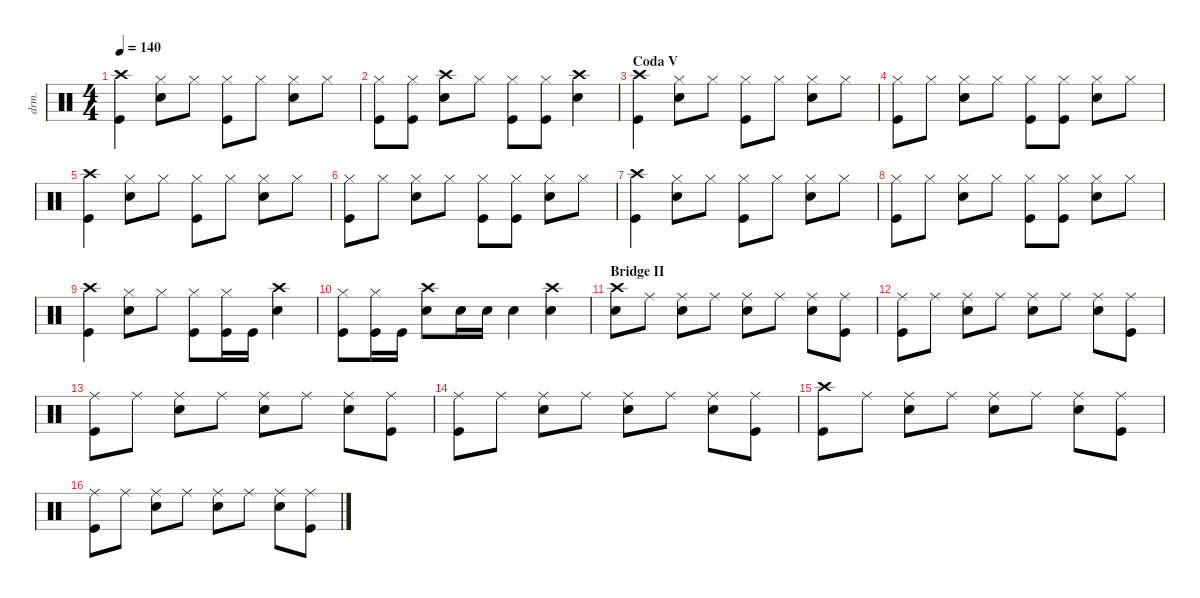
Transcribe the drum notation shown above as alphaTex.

\defaultSystemsLayout 4
\hideDynamics
\bracketExtendMode nobrackets
\otherSystemsTrackNameOrientation horizontal
\track ("Drums" "drm.") {multiBarRest instrument percussion}
\staff
\articulation defaults
\ts (4 4)
\tempo 140
\clef neutral
\ks c
("Crash high (hit)" "Kick (hit)").4{dy f} ("Hi-Hat (closed)" "Snare (hit) 2").8 "Hi-Hat (closed)".8 ("Hi-Hat (closed)" "Kick (hit)").8 "Hi-Hat (closed)".8 ("Hi-Hat (closed)" "Snare (hit) 2").8 "Hi-Hat (closed)".8 |
("Hi-Hat (closed)" "Kick (hit)").8 ("Hi-Hat (closed)" "Kick (hit)").8 ("Snare (hit) 2" "Crash high (hit)").8 "Hi-Hat (closed)".8 ("Hi-Hat (closed)" "Kick (hit)").8 ("Hi-Hat (closed)" "Kick (hit)").8 ("Snare (hit) 2" "Crash high (hit)").4 |
\section ("" "Coda V")
("Crash high (hit)" "Kick (hit)").4 ("Hi-Hat (closed)" "Snare (hit) 2").8 "Hi-Hat (closed)".8 ("Hi-Hat (closed)" "Kick (hit)").8 "Hi-Hat (closed)".8 ("Hi-Hat (closed)" "Snare (hit) 2").8 "Hi-Hat (closed)".8 |
("Kick (hit)" "Hi-Hat (closed)").8 "Hi-Hat (closed)".8 ("Hi-Hat (closed)" "Snare (hit) 2").8 "Hi-Hat (closed)".8 ("Kick (hit)" "Hi-Hat (closed)").8 ("Hi-Hat (closed)" "Kick (hit)").8 ("Hi-Hat (closed)" "Snare (hit) 2").8 "Hi-Hat (closed)".8 |
("Crash high (hit)" "Kick (hit)").4 ("Hi-Hat (closed)" "Snare (hit) 2").8 "Hi-Hat (closed)".8 ("Hi-Hat (closed)" "Kick (hit)").8 "Hi-Hat (closed)".8 ("Hi-Hat (closed)" "Snare (hit) 2").8 "Hi-Hat (closed)".8 |
("Kick (hit)" "Hi-Hat (closed)").8 "Hi-Hat (closed)".8 ("Hi-Hat (closed)" "Snare (hit) 2").8 "Hi-Hat (closed)".8 ("Kick (hit)" "Hi-Hat (closed)").8 ("Hi-Hat (closed)" "Kick (hit)").8 ("Hi-Hat (closed)" "Snare (hit) 2").8 "Hi-Hat (closed)".8 |
("Crash high (hit)" "Kick (hit)").4 ("Hi-Hat (closed)" "Snare (hit) 2").8 "Hi-Hat (closed)".8 ("Hi-Hat (closed)" "Kick (hit)").8 "Hi-Hat (closed)".8 ("Hi-Hat (closed)" "Snare (hit) 2").8 "Hi-Hat (closed)".8 |
("Kick (hit)" "Hi-Hat (closed)").8 "Hi-Hat (closed)".8 ("Hi-Hat (closed)" "Snare (hit) 2").8 "Hi-Hat (closed)".8 ("Kick (hit)" "Hi-Hat (closed)").8 ("Hi-Hat (closed)" "Kick (hit)").8 ("Hi-Hat (closed)" "Snare (hit) 2").8 "Hi-Hat (closed)".8 |
("Kick (hit)" "Crash high (hit)").4 ("Hi-Hat (closed)" "Snare (hit) 2").8 "Hi-Hat (closed)".8 ("Hi-Hat (closed)" "Kick (hit)").8 ("Hi-Hat (closed)" "Kick (hit)").16 "Kick (hit)".16 ("Snare (hit) 2" "Crash high (hit)").4 |
("Hi-Hat (closed)" "Kick (hit)").8 ("Hi-Hat (closed)" "Kick (hit)").16 "Kick (hit)".16 ("Crash high (hit)" "Snare (hit) 2").8 "Snare (hit) 2".16{dy p} "Snare (hit) 2".16{dy mp} "Snare (hit) 2".4{dy f} ("Snare (hit) 2" "Crash high (hit)").4 |
\section ("" "Bridge II")
("Crash high (hit)" "Snare (hit) 2").8 "Ride (middle)".8 ("Ride (middle)" "Snare (hit) 2").8 "Ride (middle)".8 ("Ride (middle)" "Snare (hit) 2").8 "Ride (middle)".8 ("Ride (middle)" "Snare (hit) 2").8 ("Ride (middle)" "Kick (hit)").8 |
("Ride (middle)" "Kick (hit)").8 "Ride (middle)".8 ("Ride (middle)" "Snare (hit) 2").8 "Ride (middle)".8 ("Ride (middle)" "Snare (hit) 2").8 "Ride (middle)".8 ("Ride (middle)" "Snare (hit) 2").8 ("Ride (middle)" "Kick (hit)").8 |
("Ride (middle)" "Kick (hit)").8 "Ride (middle)".8 ("Ride (middle)" "Snare (hit) 2").8 "Ride (middle)".8 ("Ride (middle)" "Snare (hit) 2").8 "Ride (middle)".8 ("Ride (middle)" "Snare (hit) 2").8 ("Ride (middle)" "Kick (hit)").8 |
("Ride (middle)" "Kick (hit)").8 "Ride (middle)".8 ("Ride (middle)" "Snare (hit) 2").8 "Ride (middle)".8 ("Ride (middle)" "Snare (hit) 2").8 "Ride (middle)".8 ("Ride (middle)" "Snare (hit) 2").8 ("Ride (middle)" "Kick (hit)").8 |
("Crash high (hit)" "Kick (hit)").8 "Ride (middle)".8 ("Ride (middle)" "Snare (hit) 2").8 "Ride (middle)".8 ("Ride (middle)" "Snare (hit) 2").8 "Ride (middle)".8 ("Ride (middle)" "Snare (hit) 2").8 ("Ride (middle)" "Kick (hit)").8 |
("Ride (middle)" "Kick (hit)").8 "Ride (middle)".8 ("Ride (middle)" "Snare (hit) 2").8 "Ride (middle)".8 ("Ride (middle)" "Snare (hit) 2").8 "Ride (middle)".8 ("Ride (middle)" "Snare (hit) 2").8 ("Ride (middle)" "Kick (hit)").8
